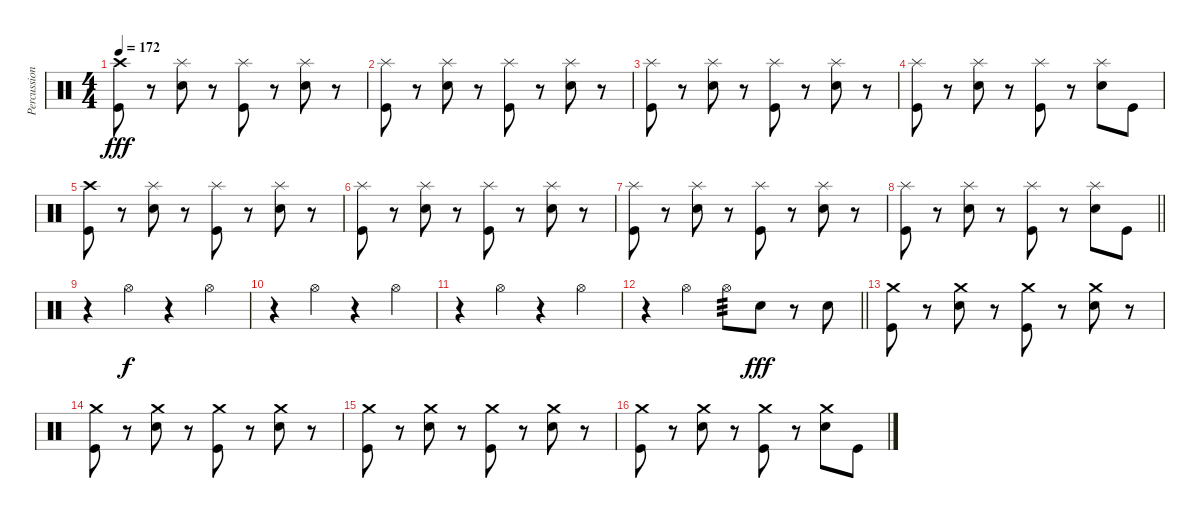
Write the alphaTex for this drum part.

\track ("Percussions" "Percussion") {instrument percussion}
\staff {score}
\articulation defaults
\ts (4 4)
\tempo 172
\clef neutral
\ks c
("Crash high (hit)" "Kick (hit)").8{dy fff} r.8 ("Splash (hit)" "Snare (hit) 2").8 r.8 ("Splash (hit)" "Kick (hit)").8 r.8 ("Splash (hit)" "Snare (hit) 2").8 r.8 |
("Splash (hit)" "Kick (hit)").8 r.8 ("Splash (hit)" "Snare (hit) 2").8 r.8 ("Splash (hit)" "Kick (hit)").8 r.8 ("Splash (hit)" "Snare (hit) 2").8 r.8 |
("Splash (hit)" "Kick (hit)").8 r.8 ("Splash (hit)" "Snare (hit) 2").8 r.8 ("Splash (hit)" "Kick (hit)").8 r.8 ("Splash (hit)" "Snare (hit) 2").8 r.8 |
("Splash (hit)" "Kick (hit)").8 r.8 ("Splash (hit)" "Snare (hit) 2").8 r.8 ("Splash (hit)" "Kick (hit)").8 r.8 ("Splash (hit)" "Snare (hit) 2").8 "Kick (hit)".8 |
("Crash high (hit)" "Kick (hit)").8 r.8 ("Splash (hit)" "Snare (hit) 2").8 r.8 ("Splash (hit)" "Kick (hit)").8 r.8 ("Splash (hit)" "Snare (hit) 2").8 r.8 |
("Splash (hit)" "Kick (hit)").8 r.8 ("Splash (hit)" "Snare (hit) 2").8 r.8 ("Splash (hit)" "Kick (hit)").8 r.8 ("Splash (hit)" "Snare (hit) 2").8 r.8 |
("Splash (hit)" "Kick (hit)").8 r.8 ("Splash (hit)" "Snare (hit) 2").8 r.8 ("Splash (hit)" "Kick (hit)").8 r.8 ("Splash (hit)" "Snare (hit) 2").8 r.8 |
\barLineRight lightlight
("Splash (hit)" "Kick (hit)").8 r.8 ("Splash (hit)" "Snare (hit) 2").8 r.8 ("Splash (hit)" "Kick (hit)").8 r.8 ("Splash (hit)" "Snare (hit) 2").8 "Kick (hit)".8 |
r.4 "Hi-Hat (open)".4{dy f} r.4 "Hi-Hat (open)".4 |
r.4 "Hi-Hat (open)".4 r.4 "Hi-Hat (open)".4 |
r.4 "Hi-Hat (open)".4 r.4 "Hi-Hat (open)".4 |
\barLineRight lightlight
r.4 "Hi-Hat (open)".4 "Hi-Hat (open)".8{tp 3} "Snare (hit) 2".8{dy fff} r.8 "Snare (hit) 2".8 |
("Crash medium (hit)" "Kick (hit)").8 r.8 ("Crash medium (hit)" "Snare (hit) 2").8 r.8 ("Crash medium (hit)" "Kick (hit)").8 r.8 ("Crash medium (hit)" "Snare (hit) 2").8 r.8 |
("Crash medium (hit)" "Kick (hit)").8 r.8 ("Crash medium (hit)" "Snare (hit) 2").8 r.8 ("Crash medium (hit)" "Kick (hit)").8 r.8 ("Crash medium (hit)" "Snare (hit) 2").8 r.8 |
("Crash medium (hit)" "Kick (hit)").8 r.8 ("Crash medium (hit)" "Snare (hit) 2").8 r.8 ("Crash medium (hit)" "Kick (hit)").8 r.8 ("Crash medium (hit)" "Snare (hit) 2").8 r.8 |
("Crash medium (hit)" "Kick (hit)").8 r.8 ("Crash medium (hit)" "Snare (hit) 2").8 r.8 ("Crash medium (hit)" "Kick (hit)").8 r.8 ("Crash medium (hit)" "Snare (hit) 2").8 "Kick (hit)".8
